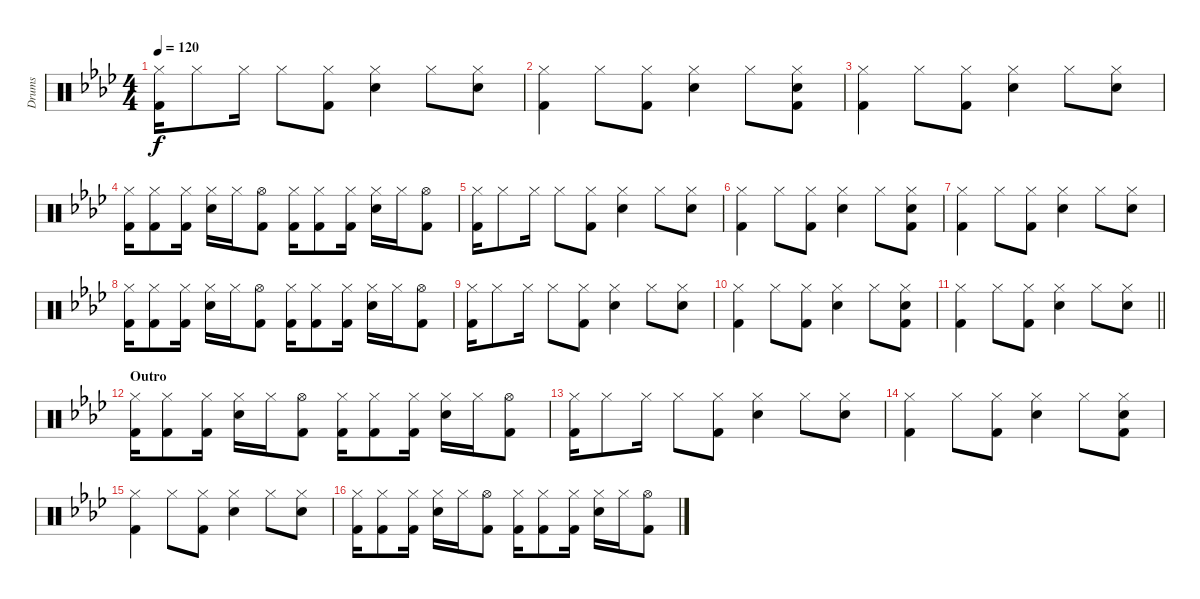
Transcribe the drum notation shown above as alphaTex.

\track ("Drums" "Drums") {instrument percussion}
\staff {score}
\articulation defaults
\ts (4 4)
\tempo 120
\clef neutral
\ks fminor
("Hi-Hat (closed)" "Kick (hit) 2").16{dy f} "Hi-Hat (closed)".8 "Hi-Hat (closed)".16 "Hi-Hat (closed)".8 ("Hi-Hat (closed)" "Kick (hit) 2").8 ("Hi-Hat (closed)" "Snare (hit) 2").4 "Hi-Hat (closed)".8 ("Hi-Hat (closed)" "Snare (hit) 2").8 |
("Hi-Hat (closed)" "Kick (hit) 2").4 "Hi-Hat (closed)".8 ("Hi-Hat (closed)" "Kick (hit) 2").8 ("Hi-Hat (closed)" "Snare (hit) 2").4 "Hi-Hat (closed)".8 ("Hi-Hat (closed)" "Snare (hit) 2" "Kick (hit) 2").8 |
("Hi-Hat (closed)" "Kick (hit) 2").4 "Hi-Hat (closed)".8 ("Hi-Hat (closed)" "Kick (hit) 2").8 ("Hi-Hat (closed)" "Snare (hit) 2").4 "Hi-Hat (closed)".8 ("Hi-Hat (closed)" "Snare (hit) 2").8 |
("Hi-Hat (closed)" "Kick (hit) 2").16 ("Hi-Hat (closed)" "Kick (hit) 2").8 ("Hi-Hat (closed)" "Kick (hit) 2").16 ("Hi-Hat (closed)" "Snare (hit) 2").16 "Hi-Hat (closed)".16 ("Hi-Hat (open)" "Kick (hit) 2").8 ("Hi-Hat (closed)" "Kick (hit) 2").16 ("Hi-Hat (closed)" "Kick (hit) 2").8 ("Hi-Hat (closed)" "Kick (hit) 2").16 ("Hi-Hat (closed)" "Snare (hit) 2").16 "Hi-Hat (closed)".16 ("Hi-Hat (open)" "Kick (hit) 2").8 |
("Hi-Hat (closed)" "Kick (hit) 2").16 "Hi-Hat (closed)".8 "Hi-Hat (closed)".16 "Hi-Hat (closed)".8 ("Hi-Hat (closed)" "Kick (hit) 2").8 ("Hi-Hat (closed)" "Snare (hit) 2").4 "Hi-Hat (closed)".8 ("Hi-Hat (closed)" "Snare (hit) 2").8 |
("Hi-Hat (closed)" "Kick (hit) 2").4 "Hi-Hat (closed)".8 ("Hi-Hat (closed)" "Kick (hit) 2").8 ("Hi-Hat (closed)" "Snare (hit) 2").4 "Hi-Hat (closed)".8 ("Hi-Hat (closed)" "Snare (hit) 2" "Kick (hit) 2").8 |
("Hi-Hat (closed)" "Kick (hit) 2").4 "Hi-Hat (closed)".8 ("Hi-Hat (closed)" "Kick (hit) 2").8 ("Hi-Hat (closed)" "Snare (hit) 2").4 "Hi-Hat (closed)".8 ("Hi-Hat (closed)" "Snare (hit) 2").8 |
("Hi-Hat (closed)" "Kick (hit) 2").16 ("Hi-Hat (closed)" "Kick (hit) 2").8 ("Hi-Hat (closed)" "Kick (hit) 2").16 ("Hi-Hat (closed)" "Snare (hit) 2").16 "Hi-Hat (closed)".16 ("Hi-Hat (open)" "Kick (hit) 2").8 ("Hi-Hat (closed)" "Kick (hit) 2").16 ("Hi-Hat (closed)" "Kick (hit) 2").8 ("Hi-Hat (closed)" "Kick (hit) 2").16 ("Hi-Hat (closed)" "Snare (hit) 2").16 "Hi-Hat (closed)".16 ("Hi-Hat (open)" "Kick (hit) 2").8 |
("Hi-Hat (closed)" "Kick (hit) 2").16 "Hi-Hat (closed)".8 "Hi-Hat (closed)".16 "Hi-Hat (closed)".8 ("Hi-Hat (closed)" "Kick (hit) 2").8 ("Hi-Hat (closed)" "Snare (hit) 2").4 "Hi-Hat (closed)".8 ("Hi-Hat (closed)" "Snare (hit) 2").8 |
("Hi-Hat (closed)" "Kick (hit) 2").4 "Hi-Hat (closed)".8 ("Hi-Hat (closed)" "Kick (hit) 2").8 ("Hi-Hat (closed)" "Snare (hit) 2").4 "Hi-Hat (closed)".8 ("Hi-Hat (closed)" "Snare (hit) 2" "Kick (hit) 2").8 |
\barLineRight lightlight
("Hi-Hat (closed)" "Kick (hit) 2").4 "Hi-Hat (closed)".8 ("Hi-Hat (closed)" "Kick (hit) 2").8 ("Hi-Hat (closed)" "Snare (hit) 2").4 "Hi-Hat (closed)".8 ("Hi-Hat (closed)" "Snare (hit) 2").8 |
\section ("" "Outro")
("Hi-Hat (closed)" "Kick (hit) 2").16 ("Hi-Hat (closed)" "Kick (hit) 2").8 ("Hi-Hat (closed)" "Kick (hit) 2").16 ("Hi-Hat (closed)" "Snare (hit) 2").16 "Hi-Hat (closed)".16 ("Hi-Hat (open)" "Kick (hit) 2").8 ("Hi-Hat (closed)" "Kick (hit) 2").16 ("Hi-Hat (closed)" "Kick (hit) 2").8 ("Hi-Hat (closed)" "Kick (hit) 2").16 ("Hi-Hat (closed)" "Snare (hit) 2").16 "Hi-Hat (closed)".16 ("Hi-Hat (open)" "Kick (hit) 2").8 |
("Hi-Hat (closed)" "Kick (hit) 2").16 "Hi-Hat (closed)".8 "Hi-Hat (closed)".16 "Hi-Hat (closed)".8 ("Hi-Hat (closed)" "Kick (hit) 2").8 ("Hi-Hat (closed)" "Snare (hit) 2").4 "Hi-Hat (closed)".8 ("Hi-Hat (closed)" "Snare (hit) 2").8 |
("Hi-Hat (closed)" "Kick (hit) 2").4 "Hi-Hat (closed)".8 ("Hi-Hat (closed)" "Kick (hit) 2").8 ("Hi-Hat (closed)" "Snare (hit) 2").4 "Hi-Hat (closed)".8 ("Hi-Hat (closed)" "Snare (hit) 2" "Kick (hit) 2").8 |
("Hi-Hat (closed)" "Kick (hit) 2").4 "Hi-Hat (closed)".8 ("Hi-Hat (closed)" "Kick (hit) 2").8 ("Hi-Hat (closed)" "Snare (hit) 2").4 "Hi-Hat (closed)".8 ("Hi-Hat (closed)" "Snare (hit) 2").8 |
("Hi-Hat (closed)" "Kick (hit) 2").16 ("Hi-Hat (closed)" "Kick (hit) 2").8 ("Hi-Hat (closed)" "Kick (hit) 2").16 ("Hi-Hat (closed)" "Snare (hit) 2").16 "Hi-Hat (closed)".16 ("Hi-Hat (open)" "Kick (hit) 2").8 ("Hi-Hat (closed)" "Kick (hit) 2").16 ("Hi-Hat (closed)" "Kick (hit) 2").8 ("Hi-Hat (closed)" "Kick (hit) 2").16 ("Hi-Hat (closed)" "Snare (hit) 2").16 "Hi-Hat (closed)".16 ("Hi-Hat (open)" "Kick (hit) 2").8
